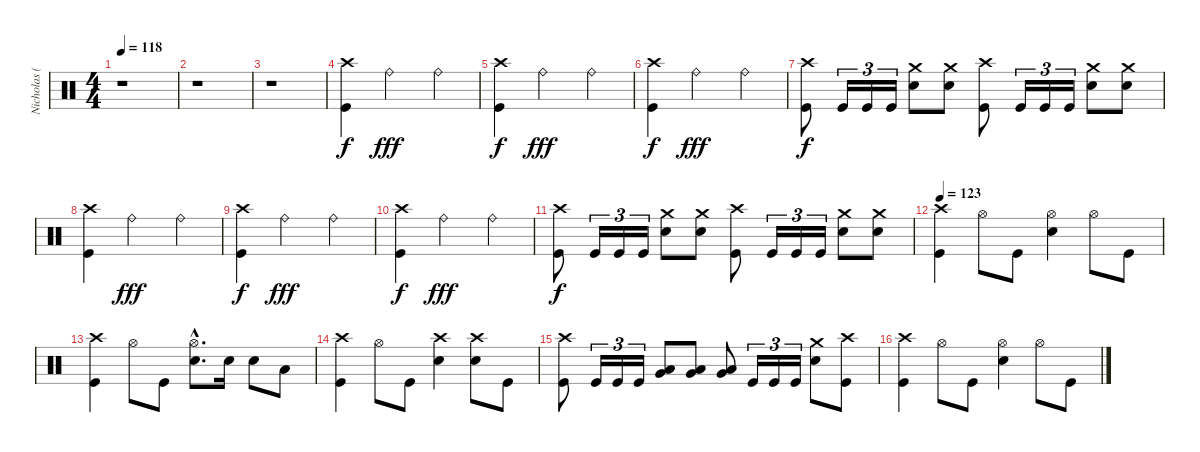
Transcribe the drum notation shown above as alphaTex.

\track ("Nicholas (Drums)" "Nicholas (") {instrument percussion}
\staff {score}
\articulation defaults
\ts (4 4)
\tempo 118
\clef neutral
\ks c
r.1{dy f} |
r.1 |
r.1 |
("Crash high (hit)" "Kick (hit)").4 "Ride (bell)".2{dy fff} "Ride (bell)".4 |
("Crash high (hit)" "Kick (hit)").4{dy f} "Ride (bell)".2{dy fff} "Ride (bell)".4 |
("Crash high (hit)" "Kick (hit)").4{dy f} "Ride (bell)".2{dy fff} "Ride (bell)".4 |
("Crash high (hit)" "Kick (hit)").8{dy f} "Kick (hit)".16{tu (3 2)} "Kick (hit)".16{tu (3 2)} "Kick (hit)".16{tu (3 2)} ("Crash medium (hit)" "Electric Snare (hit)").8 ("Crash medium (hit)" "Electric Snare (hit)").8 ("Crash high (hit)" "Kick (hit)").8 "Kick (hit)".16{tu (3 2)} "Kick (hit)".16{tu (3 2)} "Kick (hit)".16{tu (3 2)} ("Crash medium (hit)" "Electric Snare (hit)").8 ("Crash medium (hit)" "Electric Snare (hit)").8 |
("Crash high (hit)" "Kick (hit)").4 "Ride (bell)".2{dy fff} "Ride (bell)".4 |
("Crash high (hit)" "Kick (hit)").4{dy f} "Ride (bell)".2{dy fff} "Ride (bell)".4 |
("Crash high (hit)" "Kick (hit)").4{dy f} "Ride (bell)".2{dy fff} "Ride (bell)".4 |
("Crash high (hit)" "Kick (hit)").8{dy f} "Kick (hit)".16{tu (3 2)} "Kick (hit)".16{tu (3 2)} "Kick (hit)".16{tu (3 2)} ("Crash medium (hit)" "Electric Snare (hit)").8 ("Crash medium (hit)" "Electric Snare (hit)").8 ("Crash high (hit)" "Kick (hit)").8 "Kick (hit)".16{tu (3 2)} "Kick (hit)".16{tu (3 2)} "Kick (hit)".16{tu (3 2)} ("Crash medium (hit)" "Electric Snare (hit)").8 ("Crash medium (hit)" "Electric Snare (hit)").8 |
\tempo 123
("Crash high (hit)" "Kick (hit)").4 "Hi-Hat (open)".8 "Kick (hit)".8 ("Hi-Hat (open)" "Electric Snare (hit)").4 "Hi-Hat (open)".8 "Kick (hit)".8 |
("Crash high (hit)" "Kick (hit)").4 "Hi-Hat (open)".8 "Kick (hit)".8 ("Hi-Hat (open)"{hac} "Electric Snare (hit)"{hac}).8{d} "Electric Snare (hit)".16 "Electric Snare (hit)".8 "Low Tom (hit)".8 |
("Crash high (hit)" "Kick (hit)").4 "Hi-Hat (open)".8 "Kick (hit)".8 ("Crash high (hit)" "Electric Snare (hit)").4 ("Crash high (hit)" "Electric Snare (hit)").8 "Kick (hit)".8 |
("Crash high (hit)" "Kick (hit)").8 "Kick (hit)".16{tu (3 2)} "Kick (hit)".16{tu (3 2)} "Kick (hit)".16{tu (3 2)} ("Low Tom (hit)" "Very Low Tom (hit)").8{bu 60} ("Low Tom (hit)" "Very Low Tom (hit)").8{bu 60} ("Low Tom (hit)" "Very Low Tom (hit)").8{bu 60} "Kick (hit)".16{tu (3 2)} "Kick (hit)".16{tu (3 2)} "Kick (hit)".16{tu (3 2)} ("Crash medium (hit)" "Electric Snare (hit)").8 ("Crash high (hit)" "Kick (hit)").8 |
("Crash high (hit)" "Kick (hit)").4 "Hi-Hat (open)".8 "Kick (hit)".8 ("Hi-Hat (open)" "Electric Snare (hit)").4 "Hi-Hat (open)".8 "Kick (hit)".8
